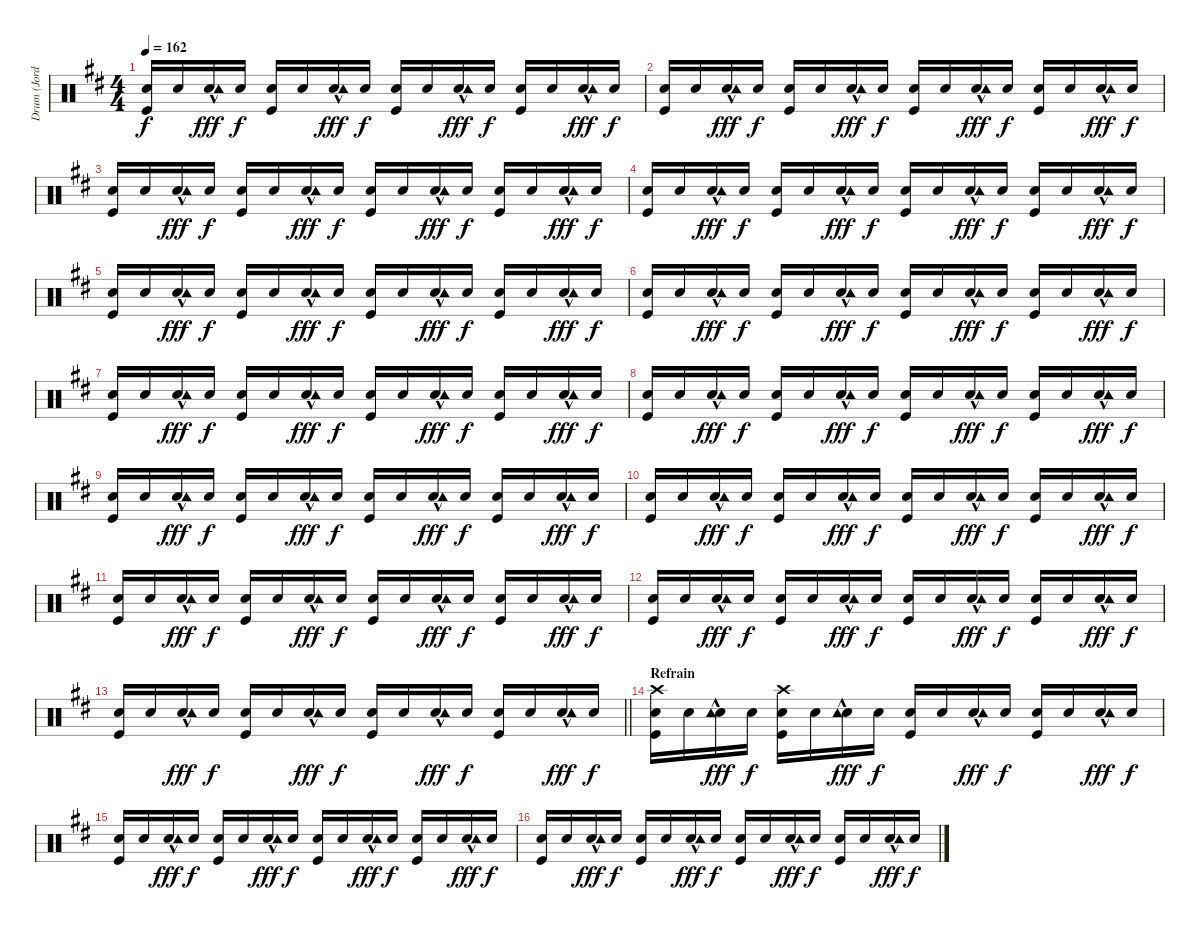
\track ("Drum (Jordan)" "Drum (Jord") {instrument percussion}
\staff {score}
\articulation defaults
\ts (4 4)
\tempo 162
\clef neutral
\ks d
("Snare (hit) 2" "Kick (hit)").16{dy f} "Snare (hit) 2".16 ("Snare (hit) 2"{hac} "Tambourine (hit)").16{dy fff} "Snare (hit) 2".16{dy f} ("Snare (hit) 2" "Kick (hit)").16 "Snare (hit) 2".16 ("Snare (hit) 2"{hac} "Tambourine (hit)").16{dy fff} "Snare (hit) 2".16{dy f} ("Snare (hit) 2" "Kick (hit)").16 "Snare (hit) 2".16 ("Snare (hit) 2"{hac} "Tambourine (hit)").16{dy fff} "Snare (hit) 2".16{dy f} ("Snare (hit) 2" "Kick (hit)").16 "Snare (hit) 2".16 ("Snare (hit) 2"{hac} "Tambourine (hit)").16{dy fff} "Snare (hit) 2".16{dy f} |
("Snare (hit) 2" "Kick (hit)").16 "Snare (hit) 2".16 ("Snare (hit) 2"{hac} "Tambourine (hit)").16{dy fff} "Snare (hit) 2".16{dy f} ("Snare (hit) 2" "Kick (hit)").16 "Snare (hit) 2".16 ("Snare (hit) 2"{hac} "Tambourine (hit)").16{dy fff} "Snare (hit) 2".16{dy f} ("Snare (hit) 2" "Kick (hit)").16 "Snare (hit) 2".16 ("Snare (hit) 2"{hac} "Tambourine (hit)").16{dy fff} "Snare (hit) 2".16{dy f} ("Snare (hit) 2" "Kick (hit)").16 "Snare (hit) 2".16 ("Snare (hit) 2"{hac} "Tambourine (hit)").16{dy fff} "Snare (hit) 2".16{dy f} |
("Snare (hit) 2" "Kick (hit)").16 "Snare (hit) 2".16 ("Snare (hit) 2"{hac} "Tambourine (hit)").16{dy fff} "Snare (hit) 2".16{dy f} ("Snare (hit) 2" "Kick (hit)").16 "Snare (hit) 2".16 ("Snare (hit) 2"{hac} "Tambourine (hit)").16{dy fff} "Snare (hit) 2".16{dy f} ("Snare (hit) 2" "Kick (hit)").16 "Snare (hit) 2".16 ("Snare (hit) 2"{hac} "Tambourine (hit)").16{dy fff} "Snare (hit) 2".16{dy f} ("Snare (hit) 2" "Kick (hit)").16 "Snare (hit) 2".16 ("Snare (hit) 2"{hac} "Tambourine (hit)").16{dy fff} "Snare (hit) 2".16{dy f} |
("Snare (hit) 2" "Kick (hit)").16 "Snare (hit) 2".16 ("Snare (hit) 2"{hac} "Tambourine (hit)").16{dy fff} "Snare (hit) 2".16{dy f} ("Snare (hit) 2" "Kick (hit)").16 "Snare (hit) 2".16 ("Snare (hit) 2"{hac} "Tambourine (hit)").16{dy fff} "Snare (hit) 2".16{dy f} ("Snare (hit) 2" "Kick (hit)").16 "Snare (hit) 2".16 ("Snare (hit) 2"{hac} "Tambourine (hit)").16{dy fff} "Snare (hit) 2".16{dy f} ("Snare (hit) 2" "Kick (hit)").16 "Snare (hit) 2".16 ("Snare (hit) 2"{hac} "Tambourine (hit)").16{dy fff} "Snare (hit) 2".16{dy f} |
("Snare (hit) 2" "Kick (hit)").16 "Snare (hit) 2".16 ("Snare (hit) 2"{hac} "Tambourine (hit)").16{dy fff} "Snare (hit) 2".16{dy f} ("Snare (hit) 2" "Kick (hit)").16 "Snare (hit) 2".16 ("Snare (hit) 2"{hac} "Tambourine (hit)").16{dy fff} "Snare (hit) 2".16{dy f} ("Snare (hit) 2" "Kick (hit)").16 "Snare (hit) 2".16 ("Snare (hit) 2"{hac} "Tambourine (hit)").16{dy fff} "Snare (hit) 2".16{dy f} ("Snare (hit) 2" "Kick (hit)").16 "Snare (hit) 2".16 ("Snare (hit) 2"{hac} "Tambourine (hit)").16{dy fff} "Snare (hit) 2".16{dy f} |
("Snare (hit) 2" "Kick (hit)").16 "Snare (hit) 2".16 ("Snare (hit) 2"{hac} "Tambourine (hit)").16{dy fff} "Snare (hit) 2".16{dy f} ("Snare (hit) 2" "Kick (hit)").16 "Snare (hit) 2".16 ("Snare (hit) 2"{hac} "Tambourine (hit)").16{dy fff} "Snare (hit) 2".16{dy f} ("Snare (hit) 2" "Kick (hit)").16 "Snare (hit) 2".16 ("Snare (hit) 2"{hac} "Tambourine (hit)").16{dy fff} "Snare (hit) 2".16{dy f} ("Snare (hit) 2" "Kick (hit)").16 "Snare (hit) 2".16 ("Snare (hit) 2"{hac} "Tambourine (hit)").16{dy fff} "Snare (hit) 2".16{dy f} |
("Snare (hit) 2" "Kick (hit)").16 "Snare (hit) 2".16 ("Snare (hit) 2"{hac} "Tambourine (hit)").16{dy fff} "Snare (hit) 2".16{dy f} ("Snare (hit) 2" "Kick (hit)").16 "Snare (hit) 2".16 ("Snare (hit) 2"{hac} "Tambourine (hit)").16{dy fff} "Snare (hit) 2".16{dy f} ("Snare (hit) 2" "Kick (hit)").16 "Snare (hit) 2".16 ("Snare (hit) 2"{hac} "Tambourine (hit)").16{dy fff} "Snare (hit) 2".16{dy f} ("Snare (hit) 2" "Kick (hit)").16 "Snare (hit) 2".16 ("Snare (hit) 2"{hac} "Tambourine (hit)").16{dy fff} "Snare (hit) 2".16{dy f} |
("Snare (hit) 2" "Kick (hit)").16 "Snare (hit) 2".16 ("Snare (hit) 2"{hac} "Tambourine (hit)").16{dy fff} "Snare (hit) 2".16{dy f} ("Snare (hit) 2" "Kick (hit)").16 "Snare (hit) 2".16 ("Snare (hit) 2"{hac} "Tambourine (hit)").16{dy fff} "Snare (hit) 2".16{dy f} ("Snare (hit) 2" "Kick (hit)").16 "Snare (hit) 2".16 ("Snare (hit) 2"{hac} "Tambourine (hit)").16{dy fff} "Snare (hit) 2".16{dy f} ("Snare (hit) 2" "Kick (hit)").16 "Snare (hit) 2".16 ("Snare (hit) 2"{hac} "Tambourine (hit)").16{dy fff} "Snare (hit) 2".16{dy f} |
("Snare (hit) 2" "Kick (hit)").16 "Snare (hit) 2".16 ("Snare (hit) 2"{hac} "Tambourine (hit)").16{dy fff} "Snare (hit) 2".16{dy f} ("Snare (hit) 2" "Kick (hit)").16 "Snare (hit) 2".16 ("Snare (hit) 2"{hac} "Tambourine (hit)").16{dy fff} "Snare (hit) 2".16{dy f} ("Snare (hit) 2" "Kick (hit)").16 "Snare (hit) 2".16 ("Snare (hit) 2"{hac} "Tambourine (hit)").16{dy fff} "Snare (hit) 2".16{dy f} ("Snare (hit) 2" "Kick (hit)").16 "Snare (hit) 2".16 ("Snare (hit) 2"{hac} "Tambourine (hit)").16{dy fff} "Snare (hit) 2".16{dy f} |
("Snare (hit) 2" "Kick (hit)").16 "Snare (hit) 2".16 ("Snare (hit) 2"{hac} "Tambourine (hit)").16{dy fff} "Snare (hit) 2".16{dy f} ("Snare (hit) 2" "Kick (hit)").16 "Snare (hit) 2".16 ("Snare (hit) 2"{hac} "Tambourine (hit)").16{dy fff} "Snare (hit) 2".16{dy f} ("Snare (hit) 2" "Kick (hit)").16 "Snare (hit) 2".16 ("Snare (hit) 2"{hac} "Tambourine (hit)").16{dy fff} "Snare (hit) 2".16{dy f} ("Snare (hit) 2" "Kick (hit)").16 "Snare (hit) 2".16 ("Snare (hit) 2"{hac} "Tambourine (hit)").16{dy fff} "Snare (hit) 2".16{dy f} |
("Snare (hit) 2" "Kick (hit)").16 "Snare (hit) 2".16 ("Snare (hit) 2"{hac} "Tambourine (hit)").16{dy fff} "Snare (hit) 2".16{dy f} ("Snare (hit) 2" "Kick (hit)").16 "Snare (hit) 2".16 ("Snare (hit) 2"{hac} "Tambourine (hit)").16{dy fff} "Snare (hit) 2".16{dy f} ("Snare (hit) 2" "Kick (hit)").16 "Snare (hit) 2".16 ("Snare (hit) 2"{hac} "Tambourine (hit)").16{dy fff} "Snare (hit) 2".16{dy f} ("Snare (hit) 2" "Kick (hit)").16 "Snare (hit) 2".16 ("Snare (hit) 2"{hac} "Tambourine (hit)").16{dy fff} "Snare (hit) 2".16{dy f} |
("Snare (hit) 2" "Kick (hit)").16 "Snare (hit) 2".16 ("Snare (hit) 2"{hac} "Tambourine (hit)").16{dy fff} "Snare (hit) 2".16{dy f} ("Snare (hit) 2" "Kick (hit)").16 "Snare (hit) 2".16 ("Snare (hit) 2"{hac} "Tambourine (hit)").16{dy fff} "Snare (hit) 2".16{dy f} ("Snare (hit) 2" "Kick (hit)").16 "Snare (hit) 2".16 ("Snare (hit) 2"{hac} "Tambourine (hit)").16{dy fff} "Snare (hit) 2".16{dy f} ("Snare (hit) 2" "Kick (hit)").16 "Snare (hit) 2".16 ("Snare (hit) 2"{hac} "Tambourine (hit)").16{dy fff} "Snare (hit) 2".16{dy f} |
\barLineRight lightlight
("Snare (hit) 2" "Kick (hit)").16 "Snare (hit) 2".16 ("Snare (hit) 2"{hac} "Tambourine (hit)").16{dy fff} "Snare (hit) 2".16{dy f} ("Snare (hit) 2" "Kick (hit)").16 "Snare (hit) 2".16 ("Snare (hit) 2"{hac} "Tambourine (hit)").16{dy fff} "Snare (hit) 2".16{dy f} ("Snare (hit) 2" "Kick (hit)").16 "Snare (hit) 2".16 ("Snare (hit) 2"{hac} "Tambourine (hit)").16{dy fff} "Snare (hit) 2".16{dy f} ("Snare (hit) 2" "Kick (hit)").16 "Snare (hit) 2".16 ("Snare (hit) 2"{hac} "Tambourine (hit)").16{dy fff} "Snare (hit) 2".16{dy f} |
\section ("" "Refrain")
("Snare (hit) 2" "Kick (hit)" "Crash high (hit)").16 "Snare (hit) 2".16 ("Snare (hit) 2"{hac} "Tambourine (hit)").16{dy fff} "Snare (hit) 2".16{dy f} ("Snare (hit) 2" "Kick (hit)" "Crash high (hit)").16 "Snare (hit) 2".16 ("Snare (hit) 2"{hac} "Tambourine (hit)").16{dy fff} "Snare (hit) 2".16{dy f} ("Snare (hit) 2" "Kick (hit)").16 "Snare (hit) 2".16 ("Snare (hit) 2"{hac} "Tambourine (hit)").16{dy fff} "Snare (hit) 2".16{dy f} ("Snare (hit) 2" "Kick (hit)").16 "Snare (hit) 2".16 ("Snare (hit) 2"{hac} "Tambourine (hit)").16{dy fff} "Snare (hit) 2".16{dy f} |
("Snare (hit) 2" "Kick (hit)").16 "Snare (hit) 2".16 ("Snare (hit) 2"{hac} "Tambourine (hit)").16{dy fff} "Snare (hit) 2".16{dy f} ("Snare (hit) 2" "Kick (hit)").16 "Snare (hit) 2".16 ("Snare (hit) 2"{hac} "Tambourine (hit)").16{dy fff} "Snare (hit) 2".16{dy f} ("Snare (hit) 2" "Kick (hit)").16 "Snare (hit) 2".16 ("Snare (hit) 2"{hac} "Tambourine (hit)").16{dy fff} "Snare (hit) 2".16{dy f} ("Snare (hit) 2" "Kick (hit)").16 "Snare (hit) 2".16 ("Snare (hit) 2"{hac} "Tambourine (hit)").16{dy fff} "Snare (hit) 2".16{dy f} |
("Snare (hit) 2" "Kick (hit)").16 "Snare (hit) 2".16 ("Snare (hit) 2"{hac} "Tambourine (hit)").16{dy fff} "Snare (hit) 2".16{dy f} ("Snare (hit) 2" "Kick (hit)").16 "Snare (hit) 2".16 ("Snare (hit) 2"{hac} "Tambourine (hit)").16{dy fff} "Snare (hit) 2".16{dy f} ("Snare (hit) 2" "Kick (hit)").16 "Snare (hit) 2".16 ("Snare (hit) 2"{hac} "Tambourine (hit)").16{dy fff} "Snare (hit) 2".16{dy f} ("Snare (hit) 2" "Kick (hit)").16 "Snare (hit) 2".16 ("Snare (hit) 2"{hac} "Tambourine (hit)").16{dy fff} "Snare (hit) 2".16{dy f}
